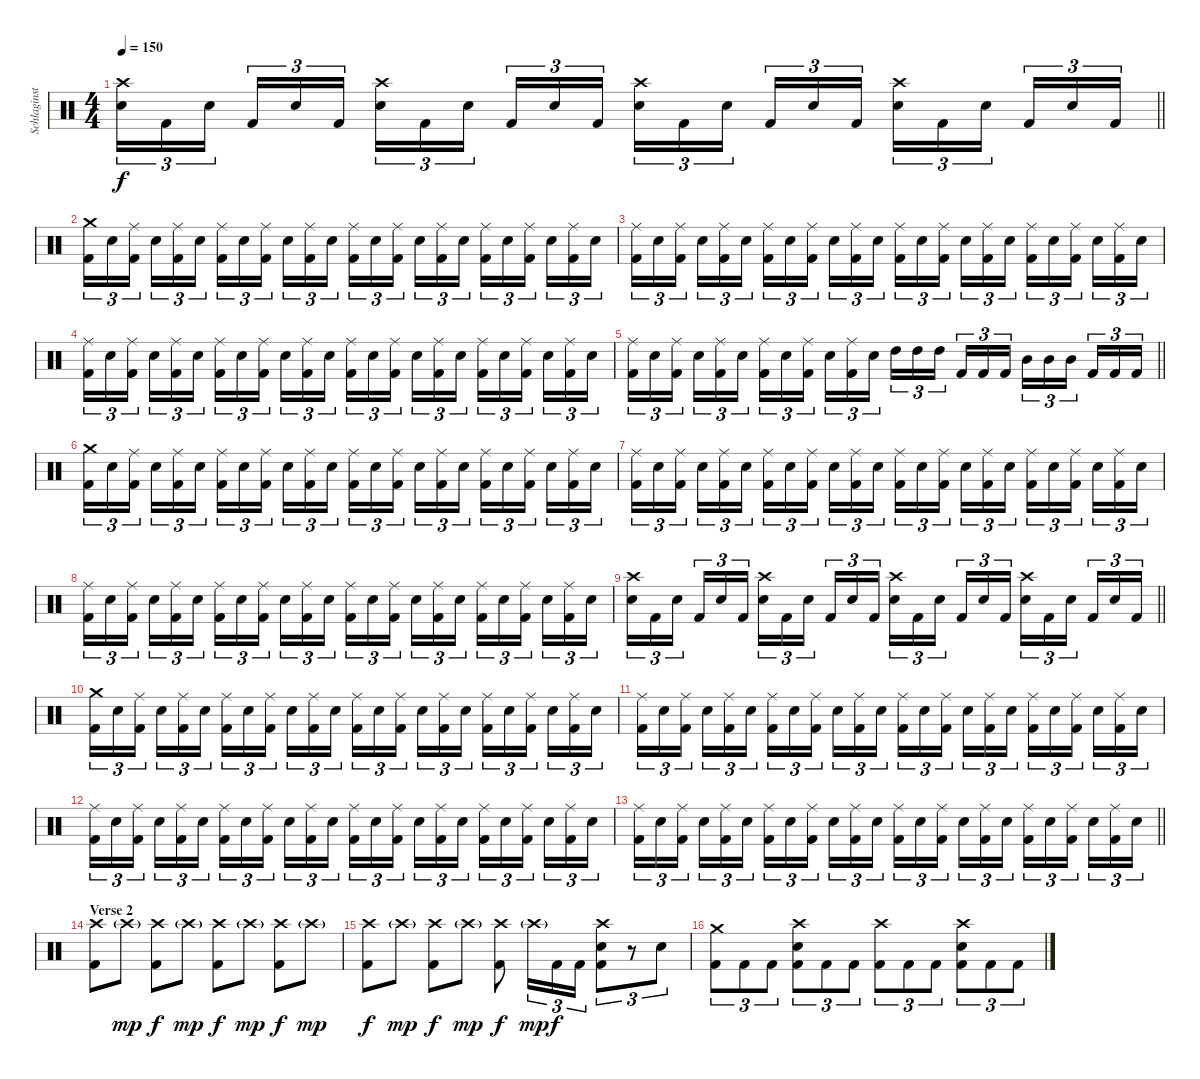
\track ("Schlaginstrumente - Auswahl" "Schlaginst") {instrument percussion}
\staff {score}
\articulation defaults
\ts (4 4)
\tempo 150
\clef neutral
\barLineRight lightlight
\ks c
("Crash high (hit)" "Electric Snare (hit)").16{tu (3 2) dy f} "Kick (hit) 2".16{tu (3 2)} "Electric Snare (hit)".16{tu (3 2) beam splitsecondary} "Kick (hit) 2".16{tu (3 2)} "Electric Snare (hit)".16{tu (3 2)} "Kick (hit) 2".16{tu (3 2)} ("Crash high (hit)" "Electric Snare (hit)").16{tu (3 2)} "Kick (hit) 2".16{tu (3 2)} "Electric Snare (hit)".16{tu (3 2) beam splitsecondary} "Kick (hit) 2".16{tu (3 2)} "Electric Snare (hit)".16{tu (3 2)} "Kick (hit) 2".16{tu (3 2)} ("Crash high (hit)" "Electric Snare (hit)").16{tu (3 2)} "Kick (hit) 2".16{tu (3 2)} "Electric Snare (hit)".16{tu (3 2) beam splitsecondary} "Kick (hit) 2".16{tu (3 2)} "Electric Snare (hit)".16{tu (3 2)} "Kick (hit) 2".16{tu (3 2)} ("Crash high (hit)" "Electric Snare (hit)").16{tu (3 2)} "Kick (hit) 2".16{tu (3 2)} "Electric Snare (hit)".16{tu (3 2) beam splitsecondary} "Kick (hit) 2".16{tu (3 2)} "Electric Snare (hit)".16{tu (3 2)} "Kick (hit) 2".16{tu (3 2)} |
("Crash medium (hit)" "Kick (hit) 2").16{tu (3 2)} "Electric Snare (hit)".16{tu (3 2)} ("Ride (middle)" "Kick (hit) 2").16{tu (3 2) beam splitsecondary} "Electric Snare (hit)".16{tu (3 2)} ("Ride (middle)" "Kick (hit) 2").16{tu (3 2)} "Electric Snare (hit)".16{tu (3 2)} ("Ride (middle)" "Kick (hit) 2").16{tu (3 2)} "Electric Snare (hit)".16{tu (3 2)} ("Ride (middle)" "Kick (hit) 2").16{tu (3 2) beam splitsecondary} "Electric Snare (hit)".16{tu (3 2)} ("Ride (middle)" "Kick (hit) 2").16{tu (3 2)} "Electric Snare (hit)".16{tu (3 2)} ("Ride (middle)" "Kick (hit) 2").16{tu (3 2)} "Electric Snare (hit)".16{tu (3 2)} ("Ride (middle)" "Kick (hit) 2").16{tu (3 2) beam splitsecondary} "Electric Snare (hit)".16{tu (3 2)} ("Ride (middle)" "Kick (hit) 2").16{tu (3 2)} "Electric Snare (hit)".16{tu (3 2)} ("Ride (middle)" "Kick (hit) 2").16{tu (3 2)} "Electric Snare (hit)".16{tu (3 2)} ("Ride (middle)" "Kick (hit) 2").16{tu (3 2) beam splitsecondary} "Electric Snare (hit)".16{tu (3 2)} ("Ride (middle)" "Kick (hit) 2").16{tu (3 2)} "Electric Snare (hit)".16{tu (3 2)} |
("Ride (middle)" "Kick (hit) 2").16{tu (3 2)} "Electric Snare (hit)".16{tu (3 2)} ("Ride (middle)" "Kick (hit) 2").16{tu (3 2) beam splitsecondary} "Electric Snare (hit)".16{tu (3 2)} ("Ride (middle)" "Kick (hit) 2").16{tu (3 2)} "Electric Snare (hit)".16{tu (3 2)} ("Ride (middle)" "Kick (hit) 2").16{tu (3 2)} "Electric Snare (hit)".16{tu (3 2)} ("Ride (middle)" "Kick (hit) 2").16{tu (3 2) beam splitsecondary} "Electric Snare (hit)".16{tu (3 2)} ("Ride (middle)" "Kick (hit) 2").16{tu (3 2)} "Electric Snare (hit)".16{tu (3 2)} ("Ride (middle)" "Kick (hit) 2").16{tu (3 2)} "Electric Snare (hit)".16{tu (3 2)} ("Ride (middle)" "Kick (hit) 2").16{tu (3 2) beam splitsecondary} "Electric Snare (hit)".16{tu (3 2)} ("Ride (middle)" "Kick (hit) 2").16{tu (3 2)} "Electric Snare (hit)".16{tu (3 2)} ("Ride (middle)" "Kick (hit) 2").16{tu (3 2)} "Electric Snare (hit)".16{tu (3 2)} ("Ride (middle)" "Kick (hit) 2").16{tu (3 2) beam splitsecondary} "Electric Snare (hit)".16{tu (3 2)} ("Ride (middle)" "Kick (hit) 2").16{tu (3 2)} "Electric Snare (hit)".16{tu (3 2)} |
("Ride (middle)" "Kick (hit) 2").16{tu (3 2)} "Electric Snare (hit)".16{tu (3 2)} ("Ride (middle)" "Kick (hit) 2").16{tu (3 2) beam splitsecondary} "Electric Snare (hit)".16{tu (3 2)} ("Ride (middle)" "Kick (hit) 2").16{tu (3 2)} "Electric Snare (hit)".16{tu (3 2)} ("Ride (middle)" "Kick (hit) 2").16{tu (3 2)} "Electric Snare (hit)".16{tu (3 2)} ("Ride (middle)" "Kick (hit) 2").16{tu (3 2) beam splitsecondary} "Electric Snare (hit)".16{tu (3 2)} ("Ride (middle)" "Kick (hit) 2").16{tu (3 2)} "Electric Snare (hit)".16{tu (3 2)} ("Ride (middle)" "Kick (hit) 2").16{tu (3 2)} "Electric Snare (hit)".16{tu (3 2)} ("Ride (middle)" "Kick (hit) 2").16{tu (3 2) beam splitsecondary} "Electric Snare (hit)".16{tu (3 2)} ("Ride (middle)" "Kick (hit) 2").16{tu (3 2)} "Electric Snare (hit)".16{tu (3 2)} ("Ride (middle)" "Kick (hit) 2").16{tu (3 2)} "Electric Snare (hit)".16{tu (3 2)} ("Ride (middle)" "Kick (hit) 2").16{tu (3 2) beam splitsecondary} "Electric Snare (hit)".16{tu (3 2)} ("Ride (middle)" "Kick (hit) 2").16{tu (3 2)} "Electric Snare (hit)".16{tu (3 2)} |
\barLineRight lightlight
("Ride (middle)" "Kick (hit) 2").16{tu (3 2)} "Electric Snare (hit)".16{tu (3 2)} ("Ride (middle)" "Kick (hit) 2").16{tu (3 2) beam splitsecondary} "Electric Snare (hit)".16{tu (3 2)} ("Ride (middle)" "Kick (hit) 2").16{tu (3 2)} "Electric Snare (hit)".16{tu (3 2)} ("Ride (middle)" "Kick (hit) 2").16{tu (3 2)} "Electric Snare (hit)".16{tu (3 2)} ("Ride (middle)" "Kick (hit) 2").16{tu (3 2) beam splitsecondary} "Electric Snare (hit)".16{tu (3 2)} ("Ride (middle)" "Kick (hit) 2").16{tu (3 2)} "Electric Snare (hit)".16{tu (3 2)} "High Tom (hit)".16{tu (3 2)} "High Tom (hit)".16{tu (3 2)} "High Tom (hit)".16{tu (3 2) beam splitsecondary} "Kick (hit) 2".16{tu (3 2)} "Kick (hit) 2".16{tu (3 2)} "Kick (hit) 2".16{tu (3 2)} "Mid Tom (hit)".16{tu (3 2)} "Mid Tom (hit)".16{tu (3 2)} "Mid Tom (hit)".16{tu (3 2) beam splitsecondary} "Kick (hit) 2".16{tu (3 2)} "Kick (hit) 2".16{tu (3 2)} "Kick (hit) 2".16{tu (3 2)} |
("Crash medium (hit)" "Kick (hit) 2").16{tu (3 2)} "Electric Snare (hit)".16{tu (3 2)} ("Ride (middle)" "Kick (hit) 2").16{tu (3 2) beam splitsecondary} "Electric Snare (hit)".16{tu (3 2)} ("Ride (middle)" "Kick (hit) 2").16{tu (3 2)} "Electric Snare (hit)".16{tu (3 2)} ("Ride (middle)" "Kick (hit) 2").16{tu (3 2)} "Electric Snare (hit)".16{tu (3 2)} ("Ride (middle)" "Kick (hit) 2").16{tu (3 2) beam splitsecondary} "Electric Snare (hit)".16{tu (3 2)} ("Ride (middle)" "Kick (hit) 2").16{tu (3 2)} "Electric Snare (hit)".16{tu (3 2)} ("Ride (middle)" "Kick (hit) 2").16{tu (3 2)} "Electric Snare (hit)".16{tu (3 2)} ("Ride (middle)" "Kick (hit) 2").16{tu (3 2) beam splitsecondary} "Electric Snare (hit)".16{tu (3 2)} ("Ride (middle)" "Kick (hit) 2").16{tu (3 2)} "Electric Snare (hit)".16{tu (3 2)} ("Ride (middle)" "Kick (hit) 2").16{tu (3 2)} "Electric Snare (hit)".16{tu (3 2)} ("Ride (middle)" "Kick (hit) 2").16{tu (3 2) beam splitsecondary} "Electric Snare (hit)".16{tu (3 2)} ("Ride (middle)" "Kick (hit) 2").16{tu (3 2)} "Electric Snare (hit)".16{tu (3 2)} |
("Ride (middle)" "Kick (hit) 2").16{tu (3 2)} "Electric Snare (hit)".16{tu (3 2)} ("Ride (middle)" "Kick (hit) 2").16{tu (3 2) beam splitsecondary} "Electric Snare (hit)".16{tu (3 2)} ("Ride (middle)" "Kick (hit) 2").16{tu (3 2)} "Electric Snare (hit)".16{tu (3 2)} ("Ride (middle)" "Kick (hit) 2").16{tu (3 2)} "Electric Snare (hit)".16{tu (3 2)} ("Ride (middle)" "Kick (hit) 2").16{tu (3 2) beam splitsecondary} "Electric Snare (hit)".16{tu (3 2)} ("Ride (middle)" "Kick (hit) 2").16{tu (3 2)} "Electric Snare (hit)".16{tu (3 2)} ("Ride (middle)" "Kick (hit) 2").16{tu (3 2)} "Electric Snare (hit)".16{tu (3 2)} ("Ride (middle)" "Kick (hit) 2").16{tu (3 2) beam splitsecondary} "Electric Snare (hit)".16{tu (3 2)} ("Ride (middle)" "Kick (hit) 2").16{tu (3 2)} "Electric Snare (hit)".16{tu (3 2)} ("Ride (middle)" "Kick (hit) 2").16{tu (3 2)} "Electric Snare (hit)".16{tu (3 2)} ("Ride (middle)" "Kick (hit) 2").16{tu (3 2) beam splitsecondary} "Electric Snare (hit)".16{tu (3 2)} ("Ride (middle)" "Kick (hit) 2").16{tu (3 2)} "Electric Snare (hit)".16{tu (3 2)} |
("Ride (middle)" "Kick (hit) 2").16{tu (3 2)} "Electric Snare (hit)".16{tu (3 2)} ("Ride (middle)" "Kick (hit) 2").16{tu (3 2) beam splitsecondary} "Electric Snare (hit)".16{tu (3 2)} ("Ride (middle)" "Kick (hit) 2").16{tu (3 2)} "Electric Snare (hit)".16{tu (3 2)} ("Ride (middle)" "Kick (hit) 2").16{tu (3 2)} "Electric Snare (hit)".16{tu (3 2)} ("Ride (middle)" "Kick (hit) 2").16{tu (3 2) beam splitsecondary} "Electric Snare (hit)".16{tu (3 2)} ("Ride (middle)" "Kick (hit) 2").16{tu (3 2)} "Electric Snare (hit)".16{tu (3 2)} ("Ride (middle)" "Kick (hit) 2").16{tu (3 2)} "Electric Snare (hit)".16{tu (3 2)} ("Ride (middle)" "Kick (hit) 2").16{tu (3 2) beam splitsecondary} "Electric Snare (hit)".16{tu (3 2)} ("Ride (middle)" "Kick (hit) 2").16{tu (3 2)} "Electric Snare (hit)".16{tu (3 2)} ("Ride (middle)" "Kick (hit) 2").16{tu (3 2)} "Electric Snare (hit)".16{tu (3 2)} ("Ride (middle)" "Kick (hit) 2").16{tu (3 2) beam splitsecondary} "Electric Snare (hit)".16{tu (3 2)} ("Ride (middle)" "Kick (hit) 2").16{tu (3 2)} "Electric Snare (hit)".16{tu (3 2)} |
\barLineRight lightlight
("Crash high (hit)" "Electric Snare (hit)").16{tu (3 2)} "Kick (hit) 2".16{tu (3 2)} "Electric Snare (hit)".16{tu (3 2) beam splitsecondary} "Kick (hit) 2".16{tu (3 2)} "Electric Snare (hit)".16{tu (3 2)} "Kick (hit) 2".16{tu (3 2)} ("Crash high (hit)" "Electric Snare (hit)").16{tu (3 2)} "Kick (hit) 2".16{tu (3 2)} "Electric Snare (hit)".16{tu (3 2) beam splitsecondary} "Kick (hit) 2".16{tu (3 2)} "Electric Snare (hit)".16{tu (3 2)} "Kick (hit) 2".16{tu (3 2)} ("Crash high (hit)" "Electric Snare (hit)").16{tu (3 2)} "Kick (hit) 2".16{tu (3 2)} "Electric Snare (hit)".16{tu (3 2) beam splitsecondary} "Kick (hit) 2".16{tu (3 2)} "Electric Snare (hit)".16{tu (3 2)} "Kick (hit) 2".16{tu (3 2)} ("Crash high (hit)" "Electric Snare (hit)").16{tu (3 2)} "Kick (hit) 2".16{tu (3 2)} "Electric Snare (hit)".16{tu (3 2) beam splitsecondary} "Kick (hit) 2".16{tu (3 2)} "Electric Snare (hit)".16{tu (3 2)} "Kick (hit) 2".16{tu (3 2)} |
("Crash medium (hit)" "Kick (hit) 2").16{tu (3 2)} "Electric Snare (hit)".16{tu (3 2)} ("Ride (middle)" "Kick (hit) 2").16{tu (3 2) beam splitsecondary} "Electric Snare (hit)".16{tu (3 2)} ("Ride (middle)" "Kick (hit) 2").16{tu (3 2)} "Electric Snare (hit)".16{tu (3 2)} ("Ride (middle)" "Kick (hit) 2").16{tu (3 2)} "Electric Snare (hit)".16{tu (3 2)} ("Ride (middle)" "Kick (hit) 2").16{tu (3 2) beam splitsecondary} "Electric Snare (hit)".16{tu (3 2)} ("Ride (middle)" "Kick (hit) 2").16{tu (3 2)} "Electric Snare (hit)".16{tu (3 2)} ("Ride (middle)" "Kick (hit) 2").16{tu (3 2)} "Electric Snare (hit)".16{tu (3 2)} ("Ride (middle)" "Kick (hit) 2").16{tu (3 2) beam splitsecondary} "Electric Snare (hit)".16{tu (3 2)} ("Ride (middle)" "Kick (hit) 2").16{tu (3 2)} "Electric Snare (hit)".16{tu (3 2)} ("Ride (middle)" "Kick (hit) 2").16{tu (3 2)} "Electric Snare (hit)".16{tu (3 2)} ("Ride (middle)" "Kick (hit) 2").16{tu (3 2) beam splitsecondary} "Electric Snare (hit)".16{tu (3 2)} ("Ride (middle)" "Kick (hit) 2").16{tu (3 2)} "Electric Snare (hit)".16{tu (3 2)} |
("Ride (middle)" "Kick (hit) 2").16{tu (3 2)} "Electric Snare (hit)".16{tu (3 2)} ("Ride (middle)" "Kick (hit) 2").16{tu (3 2) beam splitsecondary} "Electric Snare (hit)".16{tu (3 2)} ("Ride (middle)" "Kick (hit) 2").16{tu (3 2)} "Electric Snare (hit)".16{tu (3 2)} ("Ride (middle)" "Kick (hit) 2").16{tu (3 2)} "Electric Snare (hit)".16{tu (3 2)} ("Ride (middle)" "Kick (hit) 2").16{tu (3 2) beam splitsecondary} "Electric Snare (hit)".16{tu (3 2)} ("Ride (middle)" "Kick (hit) 2").16{tu (3 2)} "Electric Snare (hit)".16{tu (3 2)} ("Ride (middle)" "Kick (hit) 2").16{tu (3 2)} "Electric Snare (hit)".16{tu (3 2)} ("Ride (middle)" "Kick (hit) 2").16{tu (3 2) beam splitsecondary} "Electric Snare (hit)".16{tu (3 2)} ("Ride (middle)" "Kick (hit) 2").16{tu (3 2)} "Electric Snare (hit)".16{tu (3 2)} ("Ride (middle)" "Kick (hit) 2").16{tu (3 2)} "Electric Snare (hit)".16{tu (3 2)} ("Ride (middle)" "Kick (hit) 2").16{tu (3 2) beam splitsecondary} "Electric Snare (hit)".16{tu (3 2)} ("Ride (middle)" "Kick (hit) 2").16{tu (3 2)} "Electric Snare (hit)".16{tu (3 2)} |
("Ride (middle)" "Kick (hit) 2").16{tu (3 2)} "Electric Snare (hit)".16{tu (3 2)} ("Ride (middle)" "Kick (hit) 2").16{tu (3 2) beam splitsecondary} "Electric Snare (hit)".16{tu (3 2)} ("Ride (middle)" "Kick (hit) 2").16{tu (3 2)} "Electric Snare (hit)".16{tu (3 2)} ("Ride (middle)" "Kick (hit) 2").16{tu (3 2)} "Electric Snare (hit)".16{tu (3 2)} ("Ride (middle)" "Kick (hit) 2").16{tu (3 2) beam splitsecondary} "Electric Snare (hit)".16{tu (3 2)} ("Ride (middle)" "Kick (hit) 2").16{tu (3 2)} "Electric Snare (hit)".16{tu (3 2)} ("Ride (middle)" "Kick (hit) 2").16{tu (3 2)} "Electric Snare (hit)".16{tu (3 2)} ("Ride (middle)" "Kick (hit) 2").16{tu (3 2) beam splitsecondary} "Electric Snare (hit)".16{tu (3 2)} ("Ride (middle)" "Kick (hit) 2").16{tu (3 2)} "Electric Snare (hit)".16{tu (3 2)} ("Ride (middle)" "Kick (hit) 2").16{tu (3 2)} "Electric Snare (hit)".16{tu (3 2)} ("Ride (middle)" "Kick (hit) 2").16{tu (3 2) beam splitsecondary} "Electric Snare (hit)".16{tu (3 2)} ("Ride (middle)" "Kick (hit) 2").16{tu (3 2)} "Electric Snare (hit)".16{tu (3 2)} |
\barLineRight lightlight
("Ride (middle)" "Kick (hit) 2").16{tu (3 2)} "Electric Snare (hit)".16{tu (3 2)} ("Ride (middle)" "Kick (hit) 2").16{tu (3 2) beam splitsecondary} "Electric Snare (hit)".16{tu (3 2)} ("Ride (middle)" "Kick (hit) 2").16{tu (3 2)} "Electric Snare (hit)".16{tu (3 2)} ("Ride (middle)" "Kick (hit) 2").16{tu (3 2)} "Electric Snare (hit)".16{tu (3 2)} ("Ride (middle)" "Kick (hit) 2").16{tu (3 2) beam splitsecondary} "Electric Snare (hit)".16{tu (3 2)} ("Ride (middle)" "Kick (hit) 2").16{tu (3 2)} "Electric Snare (hit)".16{tu (3 2)} ("Ride (middle)" "Kick (hit) 2").16{tu (3 2)} "Electric Snare (hit)".16{tu (3 2)} ("Ride (middle)" "Kick (hit) 2").16{tu (3 2) beam splitsecondary} "Electric Snare (hit)".16{tu (3 2)} ("Ride (middle)" "Kick (hit) 2").16{tu (3 2)} "Electric Snare (hit)".16{tu (3 2)} ("Ride (middle)" "Kick (hit) 2").16{tu (3 2)} "Electric Snare (hit)".16{tu (3 2)} ("Ride (middle)" "Kick (hit) 2").16{tu (3 2) beam splitsecondary} "Electric Snare (hit)".16{tu (3 2)} ("Ride (middle)" "Kick (hit) 2").16{tu (3 2)} "Electric Snare (hit)".16{tu (3 2)} |
\section ("" "Verse 2")
("Crash high (hit)" "Kick (hit) 2").8 "Crash high (hit)"{g}.8{dy mp} ("Crash high (hit)" "Kick (hit) 2").8{dy f} "Crash high (hit)"{g}.8{dy mp} ("Crash high (hit)" "Kick (hit) 2").8{dy f} "Crash high (hit)"{g}.8{dy mp} ("Crash high (hit)" "Kick (hit) 2").8{dy f} "Crash high (hit)"{g}.8{dy mp} |
("Crash high (hit)" "Kick (hit) 2").8{dy f} "Crash high (hit)"{g}.8{dy mp} ("Crash high (hit)" "Kick (hit) 2").8{dy f} "Crash high (hit)"{g}.8{dy mp} ("Crash high (hit)" "Kick (hit) 2").8{dy f} "Crash high (hit)"{g}.16{tu (3 2) dy mp} "Kick (hit) 2".16{tu (3 2) dy f} "Kick (hit) 2".16{tu (3 2)} ("Crash high (hit)" "Electric Snare (hit)" "Kick (hit) 2").8{tu (3 2)} r.8{tu (3 2)} "Electric Snare (hit)".8{tu (3 2)} |
("Crash medium (hit)" "Kick (hit) 2").8{tu (3 2)} "Kick (hit) 2".8{tu (3 2)} "Kick (hit) 2".8{tu (3 2)} ("Crash high (hit)" "Electric Snare (hit)" "Kick (hit) 2").8{tu (3 2)} "Kick (hit) 2".8{tu (3 2)} "Kick (hit) 2".8{tu (3 2)} ("Crash high (hit)" "Kick (hit) 2").8{tu (3 2)} "Kick (hit) 2".8{tu (3 2)} "Kick (hit) 2".8{tu (3 2)} ("Crash high (hit)" "Electric Snare (hit)" "Kick (hit) 2").8{tu (3 2)} "Kick (hit) 2".8{tu (3 2)} "Kick (hit) 2".8{tu (3 2)}
